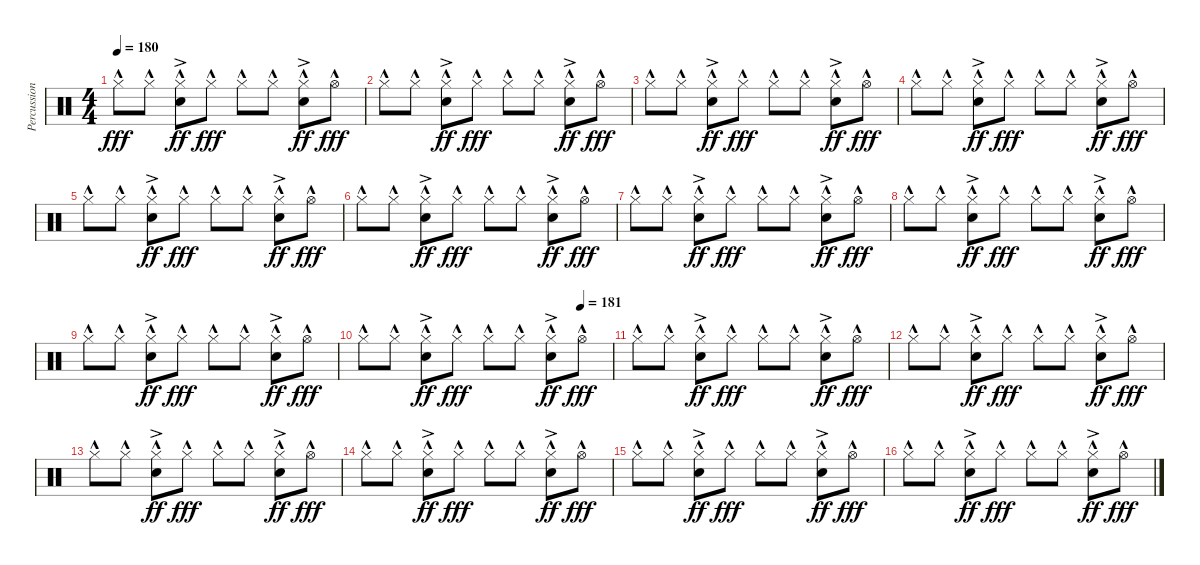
\track ("Percussion" "Percussion") {instrument percussion}
\staff {score}
\articulation defaults
\ts (4 4)
\tempo 180
\clef neutral
\ks c "Hi-Hat (closed)"{hac}.8{dy fff} "Hi-Hat (closed)"{hac}.8
("Hi-Hat (closed)"{hac} "Snare (hit) 2"{ac}).8{dy ff} "Hi-Hat (closed)"{hac}.8{dy fff} "Hi-Hat (closed)"{hac}.8 "Hi-Hat (closed)"{hac}.8 ("Hi-Hat (closed)"{hac} "Snare (hit) 2"{ac}).8{dy ff} "Hi-Hat (open)"{hac}.8{dy fff} |
"Hi-Hat (closed)"{hac}.8 "Hi-Hat (closed)"{hac}.8 ("Hi-Hat (closed)"{hac} "Snare (hit) 2"{ac}).8{dy ff} "Hi-Hat (closed)"{hac}.8{dy fff} "Hi-Hat (closed)"{hac}.8 "Hi-Hat (closed)"{hac}.8 ("Hi-Hat (closed)"{hac} "Snare (hit) 2"{ac}).8{dy ff} "Hi-Hat (open)"{hac}.8{dy fff} |
"Hi-Hat (closed)"{hac}.8 "Hi-Hat (closed)"{hac}.8 ("Hi-Hat (closed)"{hac} "Snare (hit) 2"{ac}).8{dy ff} "Hi-Hat (closed)"{hac}.8{dy fff} "Hi-Hat (closed)"{hac}.8 "Hi-Hat (closed)"{hac}.8 ("Hi-Hat (closed)"{hac} "Snare (hit) 2"{ac}).8{dy ff} "Hi-Hat (open)"{hac}.8{dy fff} |
"Hi-Hat (closed)"{hac}.8 "Hi-Hat (closed)"{hac}.8 ("Hi-Hat (closed)"{hac} "Snare (hit) 2"{ac}).8{dy ff} "Hi-Hat (closed)"{hac}.8{dy fff} "Hi-Hat (closed)"{hac}.8 "Hi-Hat (closed)"{hac}.8 ("Hi-Hat (closed)"{hac} "Snare (hit) 2"{ac}).8{dy ff} "Hi-Hat (open)"{hac}.8{dy fff} |
"Hi-Hat (closed)"{hac}.8 "Hi-Hat (closed)"{hac}.8 ("Hi-Hat (closed)"{hac} "Snare (hit) 2"{ac}).8{dy ff} "Hi-Hat (closed)"{hac}.8{dy fff} "Hi-Hat (closed)"{hac}.8 "Hi-Hat (closed)"{hac}.8 ("Hi-Hat (closed)"{hac} "Snare (hit) 2"{ac}).8{dy ff} "Hi-Hat (open)"{hac}.8{dy fff} |
"Hi-Hat (closed)"{hac}.8 "Hi-Hat (closed)"{hac}.8 ("Hi-Hat (closed)"{hac} "Snare (hit) 2"{ac}).8{dy ff} "Hi-Hat (closed)"{hac}.8{dy fff} "Hi-Hat (closed)"{hac}.8 "Hi-Hat (closed)"{hac}.8 ("Hi-Hat (closed)"{hac} "Snare (hit) 2"{ac}).8{dy ff} "Hi-Hat (open)"{hac}.8{dy fff} |
"Hi-Hat (closed)"{hac}.8 "Hi-Hat (closed)"{hac}.8 ("Hi-Hat (closed)"{hac} "Snare (hit) 2"{ac}).8{dy ff} "Hi-Hat (closed)"{hac}.8{dy fff} "Hi-Hat (closed)"{hac}.8 "Hi-Hat (closed)"{hac}.8 ("Hi-Hat (closed)"{hac} "Snare (hit) 2"{ac}).8{dy ff} "Hi-Hat (open)"{hac}.8{dy fff} |
"Hi-Hat (closed)"{hac}.8 "Hi-Hat (closed)"{hac}.8 ("Hi-Hat (closed)"{hac} "Snare (hit) 2"{ac}).8{dy ff} "Hi-Hat (closed)"{hac}.8{dy fff} "Hi-Hat (closed)"{hac}.8 "Hi-Hat (closed)"{hac}.8 ("Hi-Hat (closed)"{hac} "Snare (hit) 2"{ac}).8{dy ff} "Hi-Hat (open)"{hac}.8{dy fff} |
"Hi-Hat (closed)"{hac}.8 "Hi-Hat (closed)"{hac}.8 ("Hi-Hat (closed)"{hac} "Snare (hit) 2"{ac}).8{dy ff} "Hi-Hat (closed)"{hac}.8{dy fff} "Hi-Hat (closed)"{hac}.8 "Hi-Hat (closed)"{hac}.8 ("Hi-Hat (closed)"{hac} "Snare (hit) 2"{ac}).8{dy ff} "Hi-Hat (open)"{hac}.8{dy fff} |
\tempo (181 0.875)
"Hi-Hat (closed)"{hac}.8 "Hi-Hat (closed)"{hac}.8 ("Hi-Hat (closed)"{hac} "Snare (hit) 2"{ac}).8{dy ff} "Hi-Hat (closed)"{hac}.8{dy fff} "Hi-Hat (closed)"{hac}.8 "Hi-Hat (closed)"{hac}.8 ("Hi-Hat (closed)"{hac} "Snare (hit) 2"{ac}).8{dy ff} "Hi-Hat (open)"{hac}.8{dy fff} |
"Hi-Hat (closed)"{hac}.8 "Hi-Hat (closed)"{hac}.8 ("Hi-Hat (closed)"{hac} "Snare (hit) 2"{ac}).8{dy ff} "Hi-Hat (closed)"{hac}.8{dy fff} "Hi-Hat (closed)"{hac}.8 "Hi-Hat (closed)"{hac}.8 ("Hi-Hat (closed)"{hac} "Snare (hit) 2"{ac}).8{dy ff} "Hi-Hat (open)"{hac}.8{dy fff} |
"Hi-Hat (closed)"{hac}.8 "Hi-Hat (closed)"{hac}.8 ("Hi-Hat (closed)"{hac} "Snare (hit) 2"{ac}).8{dy ff} "Hi-Hat (closed)"{hac}.8{dy fff} "Hi-Hat (closed)"{hac}.8 "Hi-Hat (closed)"{hac}.8 ("Hi-Hat (closed)"{hac} "Snare (hit) 2"{ac}).8{dy ff} "Hi-Hat (open)"{hac}.8{dy fff} |
"Hi-Hat (closed)"{hac}.8 "Hi-Hat (closed)"{hac}.8 ("Hi-Hat (closed)"{hac} "Snare (hit) 2"{ac}).8{dy ff} "Hi-Hat (closed)"{hac}.8{dy fff} "Hi-Hat (closed)"{hac}.8 "Hi-Hat (closed)"{hac}.8 ("Hi-Hat (closed)"{hac} "Snare (hit) 2"{ac}).8{dy ff} "Hi-Hat (open)"{hac}.8{dy fff} |
"Hi-Hat (closed)"{hac}.8 "Hi-Hat (closed)"{hac}.8 ("Hi-Hat (closed)"{hac} "Snare (hit) 2"{ac}).8{dy ff} "Hi-Hat (closed)"{hac}.8{dy fff} "Hi-Hat (closed)"{hac}.8 "Hi-Hat (closed)"{hac}.8 ("Hi-Hat (closed)"{hac} "Snare (hit) 2"{ac}).8{dy ff} "Hi-Hat (open)"{hac}.8{dy fff} |
"Hi-Hat (closed)"{hac}.8 "Hi-Hat (closed)"{hac}.8 ("Hi-Hat (closed)"{hac} "Snare (hit) 2"{ac}).8{dy ff} "Hi-Hat (closed)"{hac}.8{dy fff} "Hi-Hat (closed)"{hac}.8 "Hi-Hat (closed)"{hac}.8 ("Hi-Hat (closed)"{hac} "Snare (hit) 2"{ac}).8{dy ff} "Hi-Hat (open)"{hac}.8{dy fff} |
"Hi-Hat (closed)"{hac}.8 "Hi-Hat (closed)"{hac}.8 ("Hi-Hat (closed)"{hac} "Snare (hit) 2"{ac}).8{dy ff} "Hi-Hat (closed)"{hac}.8{dy fff} "Hi-Hat (closed)"{hac}.8 "Hi-Hat (closed)"{hac}.8 ("Hi-Hat (closed)"{hac} "Snare (hit) 2"{ac}).8{dy ff} "Hi-Hat (open)"{hac}.8{dy fff}
